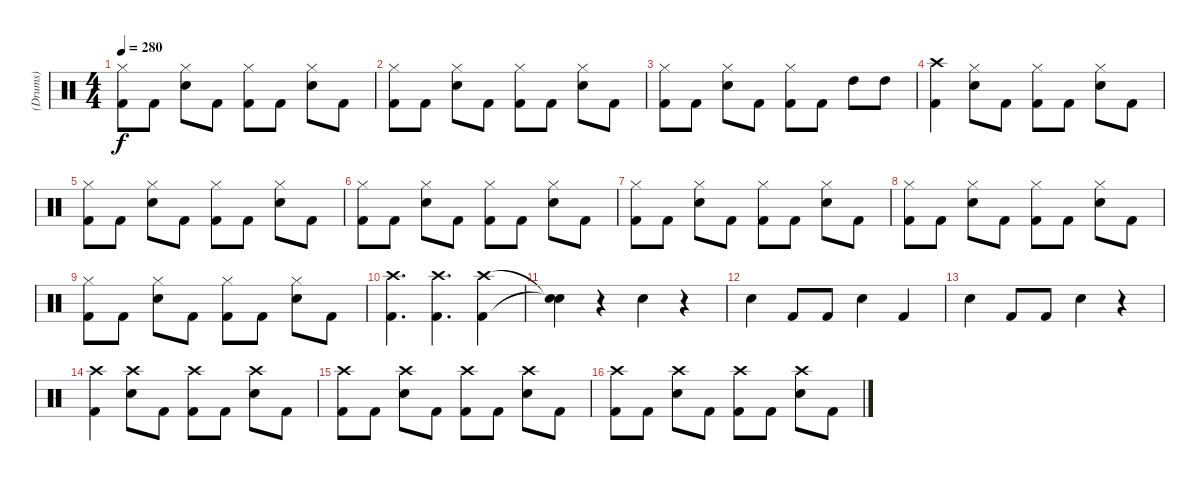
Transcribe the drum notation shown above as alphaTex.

\track ("(Drums)" "(Drums)") {instrument percussion}
\staff {score}
\articulation defaults
\ts (4 4)
\tempo 280
\clef neutral
\ks c
("Hi-Hat (closed)" "Kick (hit) 2").8{dy f} "Kick (hit) 2".8 ("Hi-Hat (closed)" "Snare (hit) 2").8 "Kick (hit) 2".8 ("Hi-Hat (closed)" "Kick (hit) 2").8 "Kick (hit) 2".8 ("Hi-Hat (closed)" "Snare (hit) 2").8 "Kick (hit) 2".8 |
("Hi-Hat (closed)" "Kick (hit) 2").8 "Kick (hit) 2".8 ("Hi-Hat (closed)" "Snare (hit) 2").8 "Kick (hit) 2".8 ("Hi-Hat (closed)" "Kick (hit) 2").8 "Kick (hit) 2".8 ("Hi-Hat (closed)" "Snare (hit) 2").8 "Kick (hit) 2".8 |
("Hi-Hat (closed)" "Kick (hit) 2").8 "Kick (hit) 2".8 ("Hi-Hat (closed)" "Snare (hit) 2").8 "Kick (hit) 2".8 ("Hi-Hat (closed)" "Kick (hit) 2").8 "Kick (hit) 2".8 "High Tom (hit)".8 "High Tom (hit)".8 |
("Kick (hit) 2" "Crash high (hit)").4 ("Hi-Hat (closed)" "Snare (hit) 2").8 "Kick (hit) 2".8 ("Hi-Hat (closed)" "Kick (hit) 2").8 "Kick (hit) 2".8 ("Hi-Hat (closed)" "Snare (hit) 2").8 "Kick (hit) 2".8 |
("Hi-Hat (closed)" "Kick (hit) 2").8 "Kick (hit) 2".8 ("Hi-Hat (closed)" "Snare (hit) 2").8 "Kick (hit) 2".8 ("Hi-Hat (closed)" "Kick (hit) 2").8 "Kick (hit) 2".8 ("Hi-Hat (closed)" "Snare (hit) 2").8 "Kick (hit) 2".8 |
("Hi-Hat (closed)" "Kick (hit) 2").8 "Kick (hit) 2".8 ("Hi-Hat (closed)" "Snare (hit) 2").8 "Kick (hit) 2".8 ("Hi-Hat (closed)" "Kick (hit) 2").8 "Kick (hit) 2".8 ("Hi-Hat (closed)" "Snare (hit) 2").8 "Kick (hit) 2".8 |
("Hi-Hat (closed)" "Kick (hit) 2").8 "Kick (hit) 2".8 ("Hi-Hat (closed)" "Snare (hit) 2").8 "Kick (hit) 2".8 ("Hi-Hat (closed)" "Kick (hit) 2").8 "Kick (hit) 2".8 ("Hi-Hat (closed)" "Snare (hit) 2").8 "Kick (hit) 2".8 |
("Hi-Hat (closed)" "Kick (hit) 2").8 "Kick (hit) 2".8 ("Hi-Hat (closed)" "Snare (hit) 2").8 "Kick (hit) 2".8 ("Hi-Hat (closed)" "Kick (hit) 2").8 "Kick (hit) 2".8 ("Hi-Hat (closed)" "Snare (hit) 2").8 "Kick (hit) 2".8 |
("Hi-Hat (closed)" "Kick (hit) 2").8 "Kick (hit) 2".8 ("Hi-Hat (closed)" "Snare (hit) 2").8 "Kick (hit) 2".8 ("Hi-Hat (closed)" "Kick (hit) 2").8 "Kick (hit) 2".8 ("Hi-Hat (closed)" "Snare (hit) 2").8 "Kick (hit) 2".8 |
("Kick (hit) 2" "Crash high (hit)").4{d} ("Kick (hit) 2" "Crash high (hit)").4{d} ("Kick (hit) 2" "Crash high (hit)").4 |
("Snare (hit)"{t} "Snare (hit)"{t}).4 r.4 "Snare (hit) 2".4 r.4 |
"Snare (hit) 2".4 "Kick (hit) 2".8 "Kick (hit) 2".8 "Snare (hit) 2".4 "Kick (hit) 2".4 |
"Snare (hit) 2".4 "Kick (hit) 2".8 "Kick (hit) 2".8 "Snare (hit) 2".4 r.4 |
("Crash high (hit)" "Kick (hit) 2").4 ("Crash high (hit)" "Snare (hit) 2").8 "Kick (hit) 2".8 ("Crash high (hit)" "Kick (hit) 2").8 "Kick (hit) 2".8 ("Crash high (hit)" "Snare (hit) 2").8 "Kick (hit) 2".8 |
("Crash high (hit)" "Kick (hit) 2").8 "Kick (hit) 2".8 ("Crash high (hit)" "Snare (hit) 2").8 "Kick (hit) 2".8 ("Crash high (hit)" "Kick (hit) 2").8 "Kick (hit) 2".8 ("Crash high (hit)" "Snare (hit) 2").8 "Kick (hit) 2".8 |
("Crash high (hit)" "Kick (hit) 2").8 "Kick (hit) 2".8 ("Crash high (hit)" "Snare (hit) 2").8 "Kick (hit) 2".8 ("Crash high (hit)" "Kick (hit) 2").8 "Kick (hit) 2".8 ("Crash high (hit)" "Snare (hit) 2").8 "Kick (hit) 2".8
